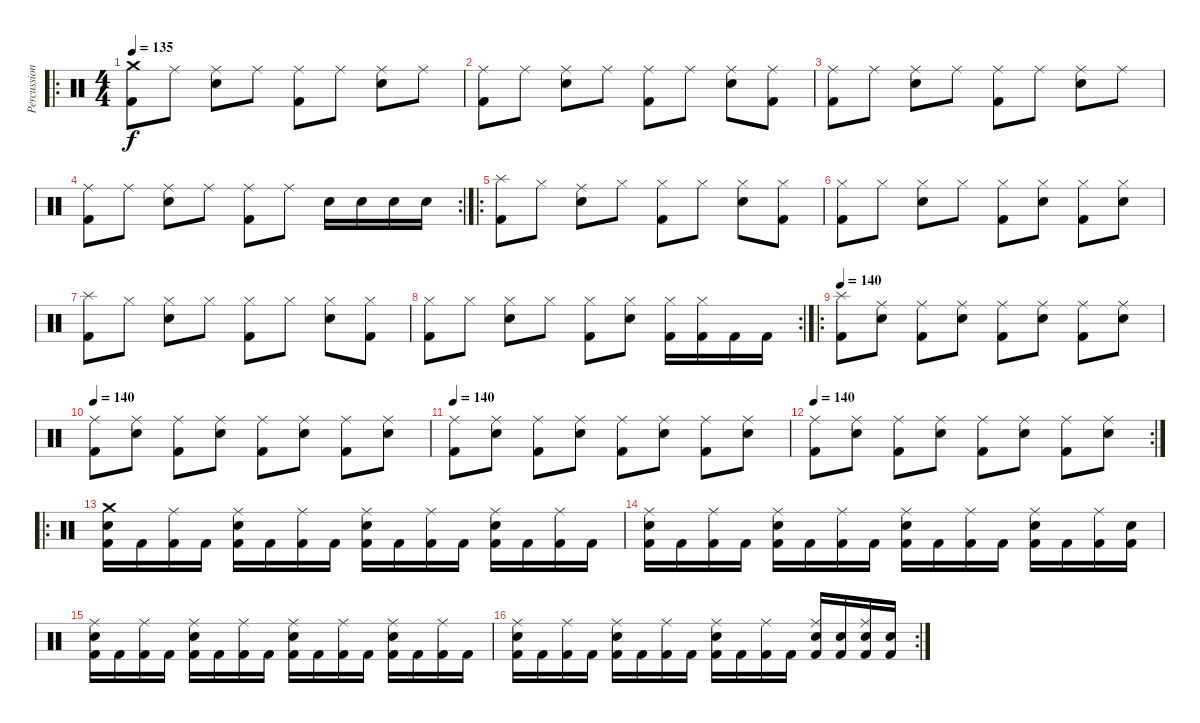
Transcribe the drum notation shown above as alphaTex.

\track ("Percussions" "Percussion") {instrument percussion}
\staff {score}
\articulation defaults
\ro
\ts (4 4)
\tempo 135
\clef neutral
\ks c
("Crash medium (hit)" "Kick (hit) 2").8{dy f} "Ride (middle)".8 ("Ride (middle)" "Snare (hit) 2").8 "Ride (middle)".8 ("Ride (middle)" "Kick (hit) 2").8 "Ride (middle)".8 ("Ride (middle)" "Snare (hit) 2").8 "Ride (middle)".8 |
("Ride (middle)" "Kick (hit) 2").8 "Ride (middle)".8 ("Ride (middle)" "Snare (hit) 2").8 "Ride (middle)".8 ("Ride (middle)" "Kick (hit) 2").8 "Ride (middle)".8 ("Ride (middle)" "Snare (hit) 2").8 ("Ride (middle)" "Kick (hit) 2").8 |
("Ride (middle)" "Kick (hit) 2").8 "Ride (middle)".8 ("Ride (middle)" "Snare (hit) 2").8 "Ride (middle)".8 ("Ride (middle)" "Kick (hit) 2").8 "Ride (middle)".8 ("Ride (middle)" "Snare (hit) 2").8 "Ride (middle)".8 |
\rc 2
("Ride (middle)" "Kick (hit) 2").8 "Ride (middle)".8 ("Ride (middle)" "Snare (hit) 2").8 "Ride (middle)".8 ("Ride (middle)" "Kick (hit) 2").8 "Ride (middle)".8 "Snare (hit) 2".16 "Snare (hit) 2".16 "Snare (hit) 2".16 "Snare (hit) 2".16 |
\ro
("Splash (hit)" "Kick (hit) 2").8 "Hi-Hat (closed)".8 ("Ride (middle)" "Snare (hit) 2").8 "Hi-Hat (closed)".8 ("Hi-Hat (closed)" "Kick (hit) 2").8 "Hi-Hat (closed)".8 ("Hi-Hat (closed)" "Snare (hit) 2").8 ("Hi-Hat (closed)" "Kick (hit) 2").8 |
("Hi-Hat (closed)" "Kick (hit) 2").8 "Hi-Hat (closed)".8 ("Hi-Hat (closed)" "Snare (hit) 2").8 "Hi-Hat (closed)".8 ("Hi-Hat (closed)" "Kick (hit) 2").8 ("Hi-Hat (closed)" "Snare (hit) 2").8 ("Hi-Hat (closed)" "Kick (hit) 2").8 ("Hi-Hat (closed)" "Snare (hit) 2").8 |
("Splash (hit)" "Kick (hit) 2").8 "Hi-Hat (closed)".8 ("Hi-Hat (closed)" "Snare (hit) 2").8 "Hi-Hat (closed)".8 ("Hi-Hat (closed)" "Kick (hit) 2").8 "Hi-Hat (closed)".8 ("Hi-Hat (closed)" "Snare (hit) 2").8 ("Hi-Hat (closed)" "Kick (hit) 2").8 |
\rc 2
("Hi-Hat (closed)" "Kick (hit) 2").8 "Hi-Hat (closed)".8 ("Hi-Hat (closed)" "Snare (hit) 2").8 "Hi-Hat (closed)".8 ("Hi-Hat (closed)" "Kick (hit) 2").8 ("Hi-Hat (closed)" "Snare (hit) 2").8 ("Hi-Hat (closed)" "Kick (hit) 2").16 ("Hi-Hat (closed)" "Kick (hit) 2").16 "Kick (hit) 2".16 "Kick (hit) 2".16 |
\ro
\tempo 140
("Splash (hit)" "Kick (hit) 2").8 ("Ride (middle)" "Snare (hit) 2").8 ("Ride (middle)" "Kick (hit) 2").8 ("Ride (middle)" "Snare (hit) 2").8 ("Ride (middle)" "Kick (hit) 2").8 ("Ride (middle)" "Snare (hit) 2").8 ("Ride (middle)" "Kick (hit) 2").8 ("Ride (middle)" "Snare (hit) 2").8 |
\tempo 140
("Ride (middle)" "Kick (hit) 2").8 ("Ride (middle)" "Snare (hit) 2").8 ("Ride (middle)" "Kick (hit) 2").8 ("Ride (middle)" "Snare (hit) 2").8 ("Ride (middle)" "Kick (hit) 2").8 ("Ride (middle)" "Snare (hit) 2").8 ("Ride (middle)" "Kick (hit) 2").8 ("Ride (middle)" "Snare (hit) 2").8 |
\tempo 140
("Ride (middle)" "Kick (hit) 2").8 ("Ride (middle)" "Snare (hit) 2").8 ("Ride (middle)" "Kick (hit) 2").8 ("Ride (middle)" "Snare (hit) 2").8 ("Ride (middle)" "Kick (hit) 2").8 ("Ride (middle)" "Snare (hit) 2").8 ("Ride (middle)" "Kick (hit) 2").8 ("Ride (middle)" "Snare (hit) 2").8 |
\rc 2
\tempo 140
("Ride (middle)" "Kick (hit) 2").8 ("Ride (middle)" "Snare (hit) 2").8 ("Ride (middle)" "Kick (hit) 2").8 ("Ride (middle)" "Snare (hit) 2").8 ("Ride (middle)" "Kick (hit) 2").8 ("Ride (middle)" "Snare (hit) 2").8 ("Ride (middle)" "Kick (hit) 2").8 ("Ride (middle)" "Snare (hit) 2").8 |
\ro
("Crash medium (hit)" "Snare (hit) 2" "Kick (hit) 2").16 "Kick (hit) 2".16 ("Ride (middle)" "Kick (hit) 2").16 "Kick (hit) 2".16 ("Ride (middle)" "Snare (hit) 2" "Kick (hit) 2").16 "Kick (hit) 2".16 ("Ride (middle)" "Kick (hit) 2").16 "Kick (hit) 2".16 ("Ride (middle)" "Snare (hit) 2" "Kick (hit) 2").16 "Kick (hit) 2".16 ("Ride (middle)" "Kick (hit) 2").16 "Kick (hit) 2".16 ("Ride (middle)" "Snare (hit) 2" "Kick (hit) 2").16 "Kick (hit) 2".16 ("Ride (middle)" "Kick (hit) 2").16 "Kick (hit) 2".16 |
("Ride (middle)" "Snare (hit) 2" "Kick (hit) 2").16 "Kick (hit) 2".16 ("Ride (middle)" "Kick (hit) 2").16 "Kick (hit) 2".16 ("Ride (middle)" "Snare (hit) 2" "Kick (hit) 2").16 "Kick (hit) 2".16 ("Ride (middle)" "Kick (hit) 2").16 "Kick (hit) 2".16 ("Ride (middle)" "Snare (hit) 2" "Kick (hit) 2").16 "Kick (hit) 2".16 ("Ride (middle)" "Kick (hit) 2").16 "Kick (hit) 2".16 ("Ride (middle)" "Snare (hit) 2" "Kick (hit) 2").16 "Kick (hit) 2".16 ("Ride (middle)" "Kick (hit) 2").16 ("Snare (hit) 2" "Kick (hit) 2").16 |
("Ride (middle)" "Snare (hit) 2" "Kick (hit) 2").16 "Kick (hit) 2".16 ("Ride (middle)" "Kick (hit) 2").16 "Kick (hit) 2".16 ("Ride (middle)" "Snare (hit) 2" "Kick (hit) 2").16 "Kick (hit) 2".16 ("Ride (middle)" "Kick (hit) 2").16 "Kick (hit) 2".16 ("Ride (middle)" "Snare (hit) 2" "Kick (hit) 2").16 "Kick (hit) 2".16 ("Ride (middle)" "Kick (hit) 2").16 "Kick (hit) 2".16 ("Ride (middle)" "Snare (hit) 2" "Kick (hit) 2").16 "Kick (hit) 2".16 ("Ride (middle)" "Kick (hit) 2").16 "Kick (hit) 2".16 |
\rc 2
("Ride (middle)" "Snare (hit) 2" "Kick (hit) 2").16 "Kick (hit) 2".16 ("Ride (middle)" "Kick (hit) 2").16 "Kick (hit) 2".16 ("Ride (middle)" "Snare (hit) 2" "Kick (hit) 2").16 "Kick (hit) 2".16 ("Ride (middle)" "Kick (hit) 2").16 "Kick (hit) 2".16 ("Ride (middle)" "Snare (hit) 2" "Kick (hit) 2").16 "Kick (hit) 2".16 ("Ride (middle)" "Kick (hit) 2").16 "Kick (hit) 2".16 ("Ride (middle)" "Snare (hit) 2" "Kick (hit) 2").16 ("Snare (hit) 2" "Kick (hit) 2").16 ("Ride (middle)" "Snare (hit) 2" "Kick (hit) 2").16 ("Snare (hit) 2" "Kick (hit) 2").16
